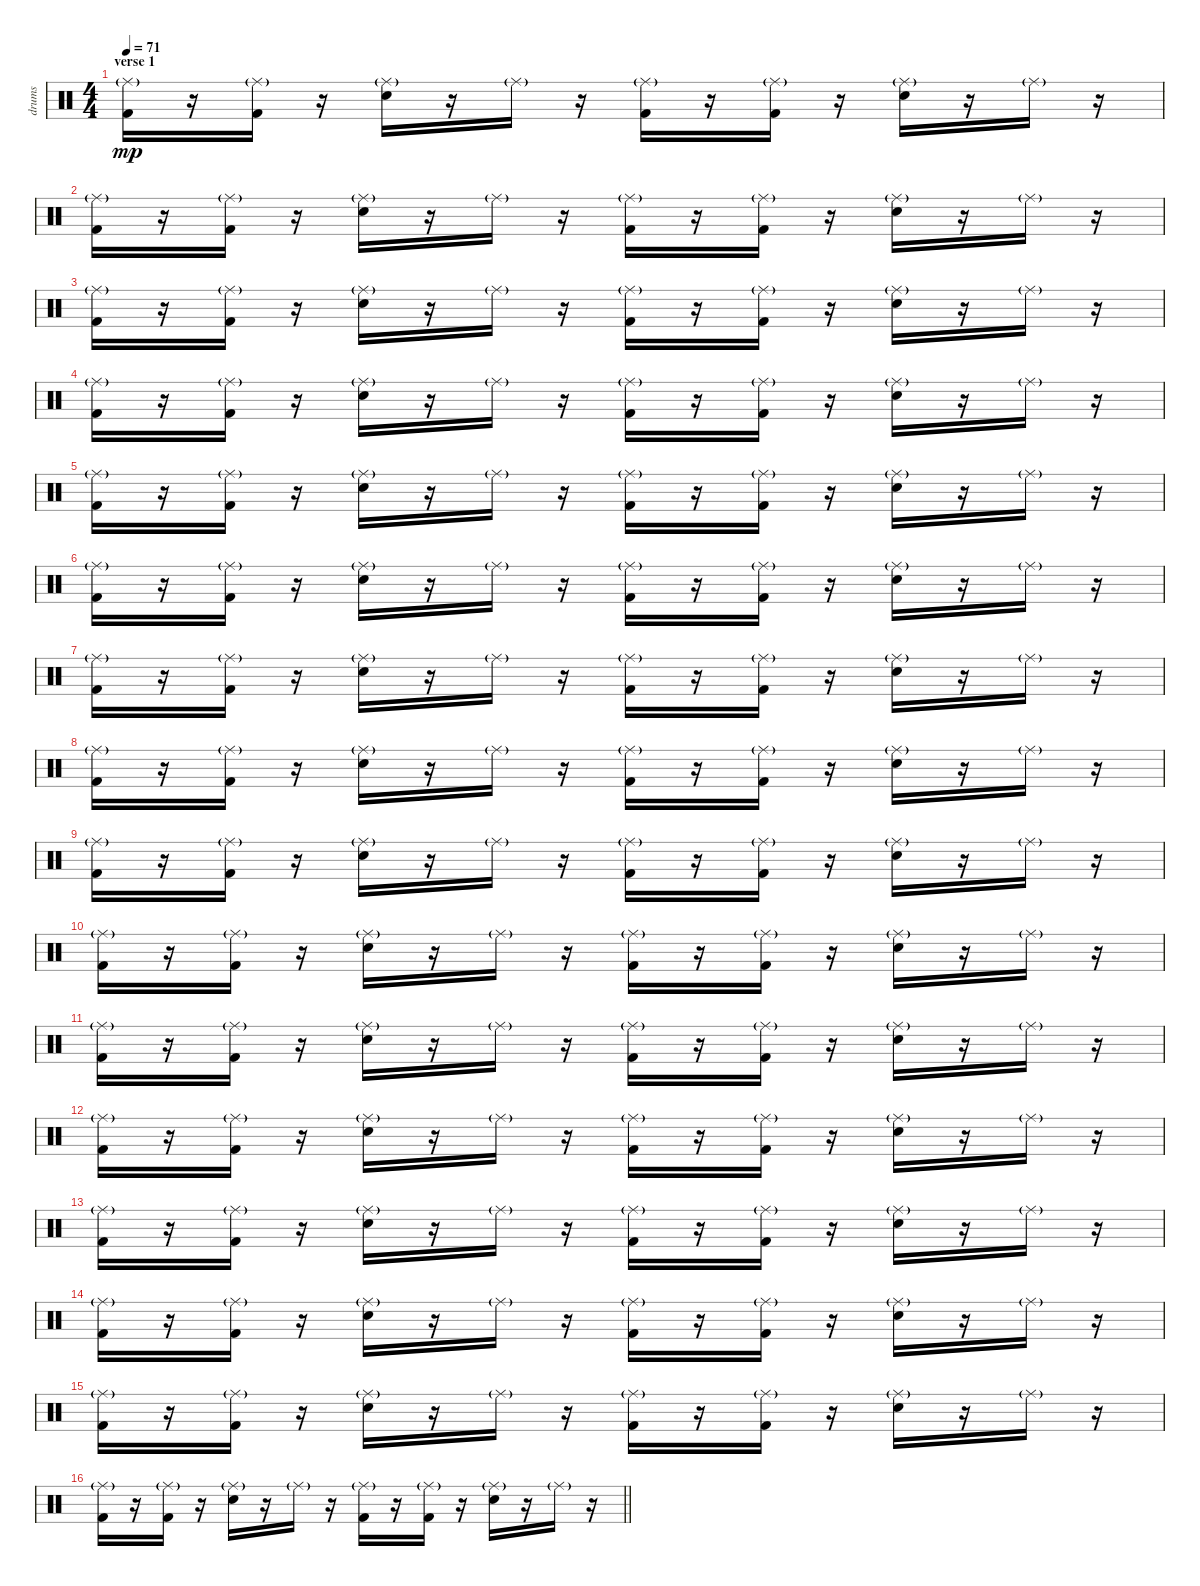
\track ("drums" "drums") {instrument percussion}
\staff {score}
\articulation defaults
\ts (4 4)
\section ("" "verse 1")
\tempo 71
\clef neutral
\ks c
("Kick (hit) 2" "Ride (middle)"{g}).16{dy mp} r.16 ("Kick (hit) 2" "Ride (middle)"{g}).16 r.16 ("Electric Snare (hit)" "Ride (middle)"{g}).16 r.16 "Ride (middle)"{g}.16 r.16 ("Kick (hit) 2" "Ride (middle)"{g}).16 r.16 ("Kick (hit) 2" "Ride (middle)"{g}).16 r.16 ("Electric Snare (hit)" "Ride (middle)"{g}).16 r.16 "Ride (middle)"{g}.16 r.16 |
("Kick (hit) 2" "Ride (middle)"{g}).16 r.16 ("Kick (hit) 2" "Ride (middle)"{g}).16 r.16 ("Electric Snare (hit)" "Ride (middle)"{g}).16 r.16 "Ride (middle)"{g}.16 r.16 ("Kick (hit) 2" "Ride (middle)"{g}).16 r.16 ("Kick (hit) 2" "Ride (middle)"{g}).16 r.16 ("Electric Snare (hit)" "Ride (middle)"{g}).16 r.16 "Ride (middle)"{g}.16 r.16 |
("Kick (hit) 2" "Ride (middle)"{g}).16 r.16 ("Kick (hit) 2" "Ride (middle)"{g}).16 r.16 ("Electric Snare (hit)" "Ride (middle)"{g}).16 r.16 "Ride (middle)"{g}.16 r.16 ("Kick (hit) 2" "Ride (middle)"{g}).16 r.16 ("Kick (hit) 2" "Ride (middle)"{g}).16 r.16 ("Electric Snare (hit)" "Ride (middle)"{g}).16 r.16 "Ride (middle)"{g}.16 r.16 |
("Kick (hit) 2" "Ride (middle)"{g}).16 r.16 ("Kick (hit) 2" "Ride (middle)"{g}).16 r.16 ("Electric Snare (hit)" "Ride (middle)"{g}).16 r.16 "Ride (middle)"{g}.16 r.16 ("Kick (hit) 2" "Ride (middle)"{g}).16 r.16 ("Kick (hit) 2" "Ride (middle)"{g}).16 r.16 ("Electric Snare (hit)" "Ride (middle)"{g}).16 r.16 "Ride (middle)"{g}.16 r.16 |
("Kick (hit) 2" "Ride (middle)"{g}).16 r.16 ("Kick (hit) 2" "Ride (middle)"{g}).16 r.16 ("Electric Snare (hit)" "Ride (middle)"{g}).16 r.16 "Ride (middle)"{g}.16 r.16 ("Kick (hit) 2" "Ride (middle)"{g}).16 r.16 ("Kick (hit) 2" "Ride (middle)"{g}).16 r.16 ("Electric Snare (hit)" "Ride (middle)"{g}).16 r.16 "Ride (middle)"{g}.16 r.16 |
("Kick (hit) 2" "Ride (middle)"{g}).16 r.16 ("Kick (hit) 2" "Ride (middle)"{g}).16 r.16 ("Electric Snare (hit)" "Ride (middle)"{g}).16 r.16 "Ride (middle)"{g}.16 r.16 ("Kick (hit) 2" "Ride (middle)"{g}).16 r.16 ("Kick (hit) 2" "Ride (middle)"{g}).16 r.16 ("Electric Snare (hit)" "Ride (middle)"{g}).16 r.16 "Ride (middle)"{g}.16 r.16 |
("Kick (hit) 2" "Ride (middle)"{g}).16 r.16 ("Kick (hit) 2" "Ride (middle)"{g}).16 r.16 ("Electric Snare (hit)" "Ride (middle)"{g}).16 r.16 "Ride (middle)"{g}.16 r.16 ("Kick (hit) 2" "Ride (middle)"{g}).16 r.16 ("Kick (hit) 2" "Ride (middle)"{g}).16 r.16 ("Electric Snare (hit)" "Ride (middle)"{g}).16 r.16 "Ride (middle)"{g}.16 r.16 |
("Kick (hit) 2" "Ride (middle)"{g}).16 r.16 ("Kick (hit) 2" "Ride (middle)"{g}).16 r.16 ("Electric Snare (hit)" "Ride (middle)"{g}).16 r.16 "Ride (middle)"{g}.16 r.16 ("Kick (hit) 2" "Ride (middle)"{g}).16 r.16 ("Kick (hit) 2" "Ride (middle)"{g}).16 r.16 ("Electric Snare (hit)" "Ride (middle)"{g}).16 r.16 "Ride (middle)"{g}.16 r.16 |
("Kick (hit) 2" "Ride (middle)"{g}).16 r.16 ("Kick (hit) 2" "Ride (middle)"{g}).16 r.16 ("Electric Snare (hit)" "Ride (middle)"{g}).16 r.16 "Ride (middle)"{g}.16 r.16 ("Kick (hit) 2" "Ride (middle)"{g}).16 r.16 ("Kick (hit) 2" "Ride (middle)"{g}).16 r.16 ("Electric Snare (hit)" "Ride (middle)"{g}).16 r.16 "Ride (middle)"{g}.16 r.16 |
("Kick (hit) 2" "Ride (middle)"{g}).16 r.16 ("Kick (hit) 2" "Ride (middle)"{g}).16 r.16 ("Electric Snare (hit)" "Ride (middle)"{g}).16 r.16 "Ride (middle)"{g}.16 r.16 ("Kick (hit) 2" "Ride (middle)"{g}).16 r.16 ("Kick (hit) 2" "Ride (middle)"{g}).16 r.16 ("Electric Snare (hit)" "Ride (middle)"{g}).16 r.16 "Ride (middle)"{g}.16 r.16 |
("Kick (hit) 2" "Ride (middle)"{g}).16 r.16 ("Kick (hit) 2" "Ride (middle)"{g}).16 r.16 ("Electric Snare (hit)" "Ride (middle)"{g}).16 r.16 "Ride (middle)"{g}.16 r.16 ("Kick (hit) 2" "Ride (middle)"{g}).16 r.16 ("Kick (hit) 2" "Ride (middle)"{g}).16 r.16 ("Electric Snare (hit)" "Ride (middle)"{g}).16 r.16 "Ride (middle)"{g}.16 r.16 |
("Kick (hit) 2" "Ride (middle)"{g}).16 r.16 ("Kick (hit) 2" "Ride (middle)"{g}).16 r.16 ("Electric Snare (hit)" "Ride (middle)"{g}).16 r.16 "Ride (middle)"{g}.16 r.16 ("Kick (hit) 2" "Ride (middle)"{g}).16 r.16 ("Kick (hit) 2" "Ride (middle)"{g}).16 r.16 ("Electric Snare (hit)" "Ride (middle)"{g}).16 r.16 "Ride (middle)"{g}.16 r.16 |
("Kick (hit) 2" "Ride (middle)"{g}).16 r.16 ("Kick (hit) 2" "Ride (middle)"{g}).16 r.16 ("Electric Snare (hit)" "Ride (middle)"{g}).16 r.16 "Ride (middle)"{g}.16 r.16 ("Kick (hit) 2" "Ride (middle)"{g}).16 r.16 ("Kick (hit) 2" "Ride (middle)"{g}).16 r.16 ("Electric Snare (hit)" "Ride (middle)"{g}).16 r.16 "Ride (middle)"{g}.16 r.16 |
("Kick (hit) 2" "Ride (middle)"{g}).16 r.16 ("Kick (hit) 2" "Ride (middle)"{g}).16 r.16 ("Electric Snare (hit)" "Ride (middle)"{g}).16 r.16 "Ride (middle)"{g}.16 r.16 ("Kick (hit) 2" "Ride (middle)"{g}).16 r.16 ("Kick (hit) 2" "Ride (middle)"{g}).16 r.16 ("Electric Snare (hit)" "Ride (middle)"{g}).16 r.16 "Ride (middle)"{g}.16 r.16 |
("Kick (hit) 2" "Ride (middle)"{g}).16 r.16 ("Kick (hit) 2" "Ride (middle)"{g}).16 r.16 ("Electric Snare (hit)" "Ride (middle)"{g}).16 r.16 "Ride (middle)"{g}.16 r.16 ("Kick (hit) 2" "Ride (middle)"{g}).16 r.16 ("Kick (hit) 2" "Ride (middle)"{g}).16 r.16 ("Electric Snare (hit)" "Ride (middle)"{g}).16 r.16 "Ride (middle)"{g}.16 r.16 |
\barLineRight lightlight
("Kick (hit) 2" "Ride (middle)"{g}).16 r.16 ("Kick (hit) 2" "Ride (middle)"{g}).16 r.16 ("Electric Snare (hit)" "Ride (middle)"{g}).16 r.16 "Ride (middle)"{g}.16 r.16 ("Kick (hit) 2" "Ride (middle)"{g}).16 r.16 ("Kick (hit) 2" "Ride (middle)"{g}).16 r.16 ("Electric Snare (hit)" "Ride (middle)"{g}).16 r.16 "Ride (middle)"{g}.16 r.16
